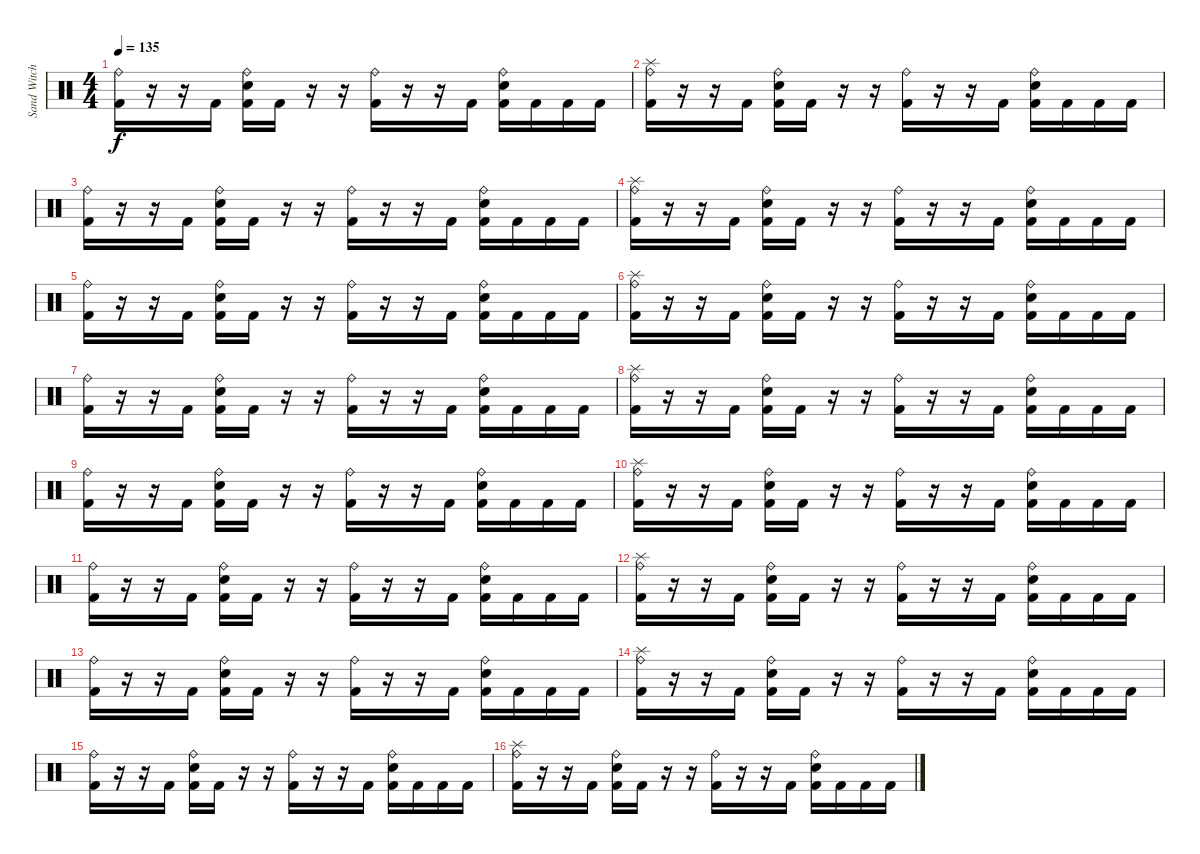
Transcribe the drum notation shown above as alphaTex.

\track ("Sand Witch" "Sand Witch") {instrument percussion}
\staff {score}
\articulation defaults
\ts (4 4)
\tempo 135
\clef neutral
\ks c
("Ride (bell)" "Kick (hit) 2").16{dy f} r.16 r.16 "Kick (hit) 2".16 ("Ride (bell)" "Snare (hit) 2" "Kick (hit) 2").16 "Kick (hit) 2".16 r.16 r.16 ("Ride (bell)" "Kick (hit) 2").16 r.16 r.16 "Kick (hit) 2".16 ("Ride (bell)" "Snare (hit) 2" "Kick (hit) 2").16 "Kick (hit) 2".16 "Kick (hit) 2".16 "Kick (hit) 2".16 |
("Ride (bell)" "Splash (hit)" "Kick (hit) 2").16 r.16 r.16 "Kick (hit) 2".16 ("Ride (bell)" "Snare (hit) 2" "Kick (hit) 2").16 "Kick (hit) 2".16 r.16 r.16 ("Ride (bell)" "Kick (hit) 2").16 r.16 r.16 "Kick (hit) 2".16 ("Ride (bell)" "Snare (hit) 2" "Kick (hit) 2").16 "Kick (hit) 2".16 "Kick (hit) 2".16 "Kick (hit) 2".16 |
("Ride (bell)" "Kick (hit) 2").16 r.16 r.16 "Kick (hit) 2".16 ("Ride (bell)" "Snare (hit) 2" "Kick (hit) 2").16 "Kick (hit) 2".16 r.16 r.16 ("Ride (bell)" "Kick (hit) 2").16 r.16 r.16 "Kick (hit) 2".16 ("Ride (bell)" "Snare (hit) 2" "Kick (hit) 2").16 "Kick (hit) 2".16 "Kick (hit) 2".16 "Kick (hit) 2".16 |
("Ride (bell)" "Splash (hit)" "Kick (hit) 2").16 r.16 r.16 "Kick (hit) 2".16 ("Ride (bell)" "Snare (hit) 2" "Kick (hit) 2").16 "Kick (hit) 2".16 r.16 r.16 ("Ride (bell)" "Kick (hit) 2").16 r.16 r.16 "Kick (hit) 2".16 ("Ride (bell)" "Snare (hit) 2" "Kick (hit) 2").16 "Kick (hit) 2".16 "Kick (hit) 2".16 "Kick (hit) 2".16 |
("Ride (bell)" "Kick (hit) 2").16 r.16 r.16 "Kick (hit) 2".16 ("Ride (bell)" "Snare (hit) 2" "Kick (hit) 2").16 "Kick (hit) 2".16 r.16 r.16 ("Ride (bell)" "Kick (hit) 2").16 r.16 r.16 "Kick (hit) 2".16 ("Ride (bell)" "Snare (hit) 2" "Kick (hit) 2").16 "Kick (hit) 2".16 "Kick (hit) 2".16 "Kick (hit) 2".16 |
("Ride (bell)" "Splash (hit)" "Kick (hit) 2").16 r.16 r.16 "Kick (hit) 2".16 ("Ride (bell)" "Snare (hit) 2" "Kick (hit) 2").16 "Kick (hit) 2".16 r.16 r.16 ("Ride (bell)" "Kick (hit) 2").16 r.16 r.16 "Kick (hit) 2".16 ("Ride (bell)" "Snare (hit) 2" "Kick (hit) 2").16 "Kick (hit) 2".16 "Kick (hit) 2".16 "Kick (hit) 2".16 |
("Ride (bell)" "Kick (hit) 2").16 r.16 r.16 "Kick (hit) 2".16 ("Ride (bell)" "Snare (hit) 2" "Kick (hit) 2").16 "Kick (hit) 2".16 r.16 r.16 ("Ride (bell)" "Kick (hit) 2").16 r.16 r.16 "Kick (hit) 2".16 ("Ride (bell)" "Snare (hit) 2" "Kick (hit) 2").16 "Kick (hit) 2".16 "Kick (hit) 2".16 "Kick (hit) 2".16 |
("Ride (bell)" "Splash (hit)" "Kick (hit) 2").16 r.16 r.16 "Kick (hit) 2".16 ("Ride (bell)" "Snare (hit) 2" "Kick (hit) 2").16 "Kick (hit) 2".16 r.16 r.16 ("Ride (bell)" "Kick (hit) 2").16 r.16 r.16 "Kick (hit) 2".16 ("Ride (bell)" "Snare (hit) 2" "Kick (hit) 2").16 "Kick (hit) 2".16 "Kick (hit) 2".16 "Kick (hit) 2".16 |
("Ride (bell)" "Kick (hit) 2").16 r.16 r.16 "Kick (hit) 2".16 ("Ride (bell)" "Snare (hit) 2" "Kick (hit) 2").16 "Kick (hit) 2".16 r.16 r.16 ("Ride (bell)" "Kick (hit) 2").16 r.16 r.16 "Kick (hit) 2".16 ("Ride (bell)" "Snare (hit) 2" "Kick (hit) 2").16 "Kick (hit) 2".16 "Kick (hit) 2".16 "Kick (hit) 2".16 |
("Ride (bell)" "Splash (hit)" "Kick (hit) 2").16 r.16 r.16 "Kick (hit) 2".16 ("Ride (bell)" "Snare (hit) 2" "Kick (hit) 2").16 "Kick (hit) 2".16 r.16 r.16 ("Ride (bell)" "Kick (hit) 2").16 r.16 r.16 "Kick (hit) 2".16 ("Ride (bell)" "Snare (hit) 2" "Kick (hit) 2").16 "Kick (hit) 2".16 "Kick (hit) 2".16 "Kick (hit) 2".16 |
("Ride (bell)" "Kick (hit) 2").16 r.16 r.16 "Kick (hit) 2".16 ("Ride (bell)" "Snare (hit) 2" "Kick (hit) 2").16 "Kick (hit) 2".16 r.16 r.16 ("Ride (bell)" "Kick (hit) 2").16 r.16 r.16 "Kick (hit) 2".16 ("Ride (bell)" "Snare (hit) 2" "Kick (hit) 2").16 "Kick (hit) 2".16 "Kick (hit) 2".16 "Kick (hit) 2".16 |
("Ride (bell)" "Splash (hit)" "Kick (hit) 2").16 r.16 r.16 "Kick (hit) 2".16 ("Ride (bell)" "Snare (hit) 2" "Kick (hit) 2").16 "Kick (hit) 2".16 r.16 r.16 ("Ride (bell)" "Kick (hit) 2").16 r.16 r.16 "Kick (hit) 2".16 ("Ride (bell)" "Snare (hit) 2" "Kick (hit) 2").16 "Kick (hit) 2".16 "Kick (hit) 2".16 "Kick (hit) 2".16 |
("Ride (bell)" "Kick (hit) 2").16 r.16 r.16 "Kick (hit) 2".16 ("Ride (bell)" "Snare (hit) 2" "Kick (hit) 2").16 "Kick (hit) 2".16 r.16 r.16 ("Ride (bell)" "Kick (hit) 2").16 r.16 r.16 "Kick (hit) 2".16 ("Ride (bell)" "Snare (hit) 2" "Kick (hit) 2").16 "Kick (hit) 2".16 "Kick (hit) 2".16 "Kick (hit) 2".16 |
("Ride (bell)" "Splash (hit)" "Kick (hit) 2").16 r.16 r.16 "Kick (hit) 2".16 ("Ride (bell)" "Snare (hit) 2" "Kick (hit) 2").16 "Kick (hit) 2".16 r.16 r.16 ("Ride (bell)" "Kick (hit) 2").16 r.16 r.16 "Kick (hit) 2".16 ("Ride (bell)" "Snare (hit) 2" "Kick (hit) 2").16 "Kick (hit) 2".16 "Kick (hit) 2".16 "Kick (hit) 2".16 |
("Ride (bell)" "Kick (hit) 2").16 r.16 r.16 "Kick (hit) 2".16 ("Ride (bell)" "Snare (hit) 2" "Kick (hit) 2").16 "Kick (hit) 2".16 r.16 r.16 ("Ride (bell)" "Kick (hit) 2").16 r.16 r.16 "Kick (hit) 2".16 ("Ride (bell)" "Snare (hit) 2" "Kick (hit) 2").16 "Kick (hit) 2".16 "Kick (hit) 2".16 "Kick (hit) 2".16 |
("Ride (bell)" "Splash (hit)" "Kick (hit) 2").16 r.16 r.16 "Kick (hit) 2".16 ("Ride (bell)" "Snare (hit) 2" "Kick (hit) 2").16 "Kick (hit) 2".16 r.16 r.16 ("Ride (bell)" "Kick (hit) 2").16 r.16 r.16 "Kick (hit) 2".16 ("Ride (bell)" "Snare (hit) 2" "Kick (hit) 2").16 "Kick (hit) 2".16 "Kick (hit) 2".16 "Kick (hit) 2".16
